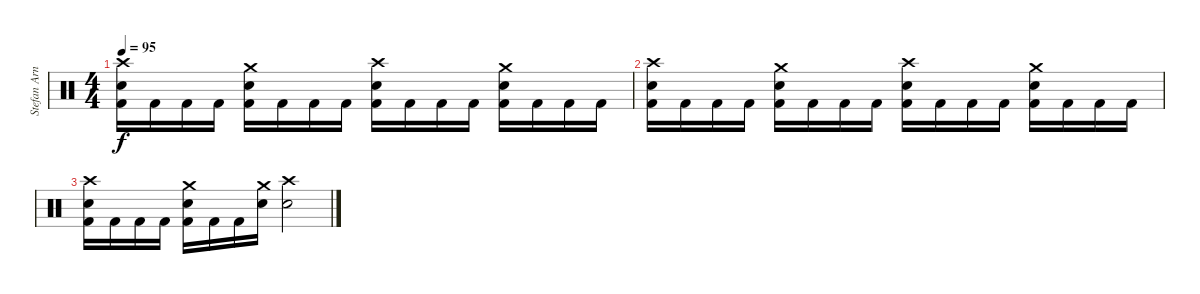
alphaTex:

\track ("Stefan Arnold (Drums)" "Stefan Arn") {instrument percussion}
\staff {score}
\articulation defaults
\ts (4 4)
\tempo 95
\clef neutral
\ks c
("Crash high (hit)" "Snare (hit) 2" "Kick (hit) 2").16{dy f} "Kick (hit) 2".16 "Kick (hit) 2".16 "Kick (hit) 2".16 ("Crash medium (hit)" "Snare (hit) 2" "Kick (hit) 2").16 "Kick (hit) 2".16 "Kick (hit) 2".16 "Kick (hit) 2".16 ("Crash high (hit)" "Snare (hit) 2" "Kick (hit) 2").16 "Kick (hit) 2".16 "Kick (hit) 2".16 "Kick (hit) 2".16 ("Crash medium (hit)" "Snare (hit) 2" "Kick (hit) 2").16 "Kick (hit) 2".16 "Kick (hit) 2".16 "Kick (hit) 2".16 |
("Crash high (hit)" "Snare (hit) 2" "Kick (hit) 2").16 "Kick (hit) 2".16 "Kick (hit) 2".16 "Kick (hit) 2".16 ("Crash medium (hit)" "Snare (hit) 2" "Kick (hit) 2").16 "Kick (hit) 2".16 "Kick (hit) 2".16 "Kick (hit) 2".16 ("Crash high (hit)" "Snare (hit) 2" "Kick (hit) 2").16 "Kick (hit) 2".16 "Kick (hit) 2".16 "Kick (hit) 2".16 ("Crash medium (hit)" "Snare (hit) 2" "Kick (hit) 2").16 "Kick (hit) 2".16 "Kick (hit) 2".16 "Kick (hit) 2".16 |
("Crash high (hit)" "Snare (hit) 2" "Kick (hit) 2").16 "Kick (hit) 2".16 "Kick (hit) 2".16 "Kick (hit) 2".16 ("Crash medium (hit)" "Snare (hit) 2" "Kick (hit) 2").16 "Kick (hit) 2".16 "Kick (hit) 2".16 ("Crash medium (hit)" "Snare (hit) 2").16 ("Crash high (hit)" "Snare (hit) 2").2
